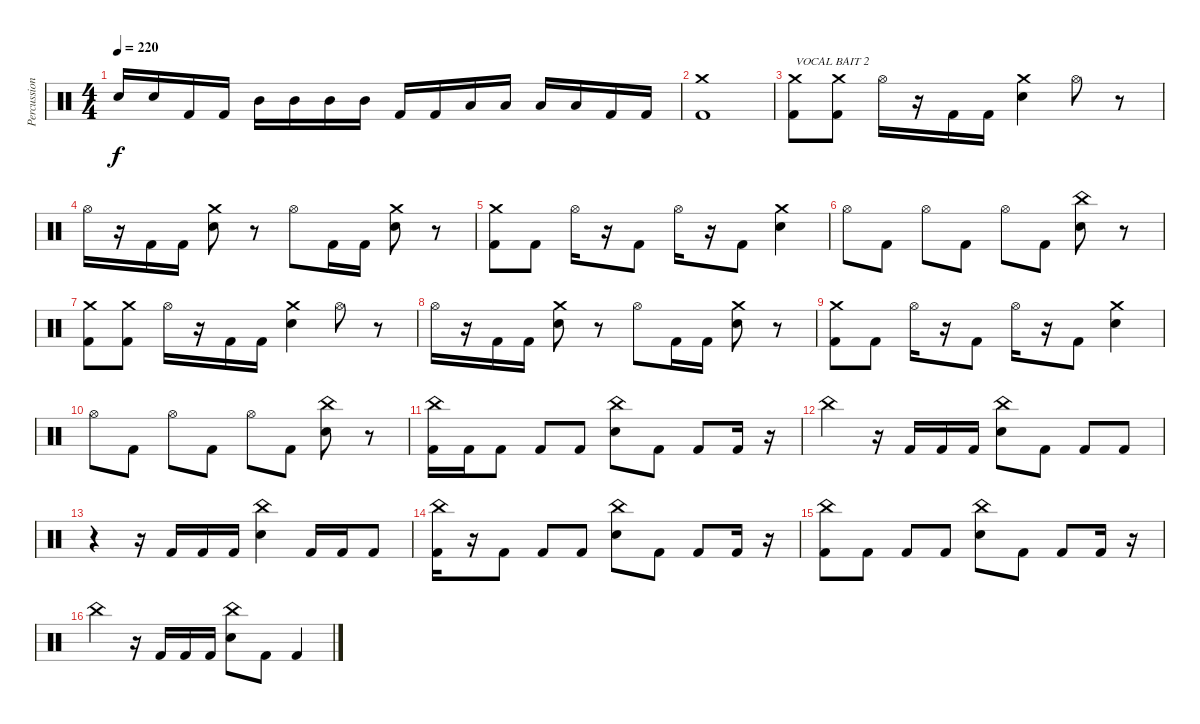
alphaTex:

\track ("Percussion" "Percussion") {solo instrument percussion}
\staff {score}
\articulation defaults
\ts (4 4)
\tempo 220
\clef neutral
\ks c "Electric Snare (hit)".16{dy f} "Electric Snare (hit)".16 "Kick (hit) 2".16 "Kick (hit) 2".16 "Mid Tom (hit)".16 "Mid Tom (hit)".16 "Mid Tom (hit)".16 "Mid Tom (hit)".16 "Kick (hit) 2".16 "Kick (hit) 2".16 "Low Floor Tom (hit)".16 "Low Floor Tom (hit)".16 "Low Floor Tom (hit)".16 "Low Floor Tom (hit)".16 "Kick (hit) 2".16 "Kick (hit) 2".16
|
("Crash medium (hit)" "Kick (hit) 2").1 |
("Crash medium (hit)" "Kick (hit) 2").8{txt "VOCAL BAIT 2"} ("Crash medium (hit)" "Kick (hit) 2").8 "Hi-Hat (open)".16 r.16 "Kick (hit) 2".16 "Kick (hit) 2".16 ("Crash medium (hit)" "Electric Snare (hit)").4 "Hi-Hat (open)".8 r.8 |
"Hi-Hat (open)".16 r.16 "Kick (hit) 2".16 "Kick (hit) 2".16 ("Crash medium (hit)" "Electric Snare (hit)").8 r.8 "Hi-Hat (open)".8 "Kick (hit) 2".16 "Kick (hit) 2".16 ("Crash medium (hit)" "Electric Snare (hit)").8 r.8 |
("Crash medium (hit)" "Kick (hit) 2").8 "Kick (hit) 2".8 "Hi-Hat (open)".16 r.16 "Kick (hit) 2".8 "Hi-Hat (open)".16 r.16 "Kick (hit) 2".8 ("Crash medium (hit)" "Electric Snare (hit)").4 |
"Hi-Hat (open)".8 "Kick (hit) 2".8 "Hi-Hat (open)".8 "Kick (hit) 2".8 "Hi-Hat (open)".8 "Kick (hit) 2".8 ("China (hit)" "Electric Snare (hit)").8 r.8 |
("Crash medium (hit)" "Kick (hit) 2").8 ("Crash medium (hit)" "Kick (hit) 2").8 "Hi-Hat (open)".16 r.16 "Kick (hit) 2".16 "Kick (hit) 2".16 ("Crash medium (hit)" "Electric Snare (hit)").4 "Hi-Hat (open)".8 r.8 |
"Hi-Hat (open)".16 r.16 "Kick (hit) 2".16 "Kick (hit) 2".16 ("Crash medium (hit)" "Electric Snare (hit)").8 r.8 "Hi-Hat (open)".8 "Kick (hit) 2".16 "Kick (hit) 2".16 ("Crash medium (hit)" "Electric Snare (hit)").8 r.8 |
("Crash medium (hit)" "Kick (hit) 2").8 "Kick (hit) 2".8 "Hi-Hat (open)".16 r.16 "Kick (hit) 2".8 "Hi-Hat (open)".16 r.16 "Kick (hit) 2".8 ("Crash medium (hit)" "Electric Snare (hit)").4 |
"Hi-Hat (open)".8 "Kick (hit) 2".8 "Hi-Hat (open)".8 "Kick (hit) 2".8 "Hi-Hat (open)".8 "Kick (hit) 2".8 ("China (hit)" "Electric Snare (hit)").8 r.8 |
("China (hit)" "Kick (hit) 2").16 "Kick (hit) 2".16 "Kick (hit) 2".8 "Kick (hit) 2".8 "Kick (hit) 2".8 ("China (hit)" "Electric Snare (hit)").8 "Kick (hit) 2".8 "Kick (hit) 2".8 "Kick (hit) 2".16 r.16 |
"China (hit)".4 r.16 "Kick (hit) 2".16 "Kick (hit) 2".16 "Kick (hit) 2".16 ("China (hit)" "Electric Snare (hit)").8 "Kick (hit) 2".8 "Kick (hit) 2".8 "Kick (hit) 2".8 |
r.4 r.16 "Kick (hit) 2".16 "Kick (hit) 2".16 "Kick (hit) 2".16 ("China (hit)" "Electric Snare (hit)").4 "Kick (hit) 2".16 "Kick (hit) 2".16 "Kick (hit) 2".8 |
("China (hit)" "Kick (hit) 2").16 r.16 "Kick (hit) 2".8 "Kick (hit) 2".8 "Kick (hit) 2".8 ("China (hit)" "Electric Snare (hit)").8 "Kick (hit) 2".8 "Kick (hit) 2".8 "Kick (hit) 2".16 r.16 |
("China (hit)" "Kick (hit) 2").8 "Kick (hit) 2".8 "Kick (hit) 2".8 "Kick (hit) 2".8 ("China (hit)" "Electric Snare (hit)").8 "Kick (hit) 2".8 "Kick (hit) 2".8 "Kick (hit) 2".16 r.16 |
"China (hit)".4 r.16 "Kick (hit) 2".16 "Kick (hit) 2".16 "Kick (hit) 2".16 ("China (hit)" "Electric Snare (hit)").8 "Kick (hit) 2".8 "Kick (hit) 2".4
